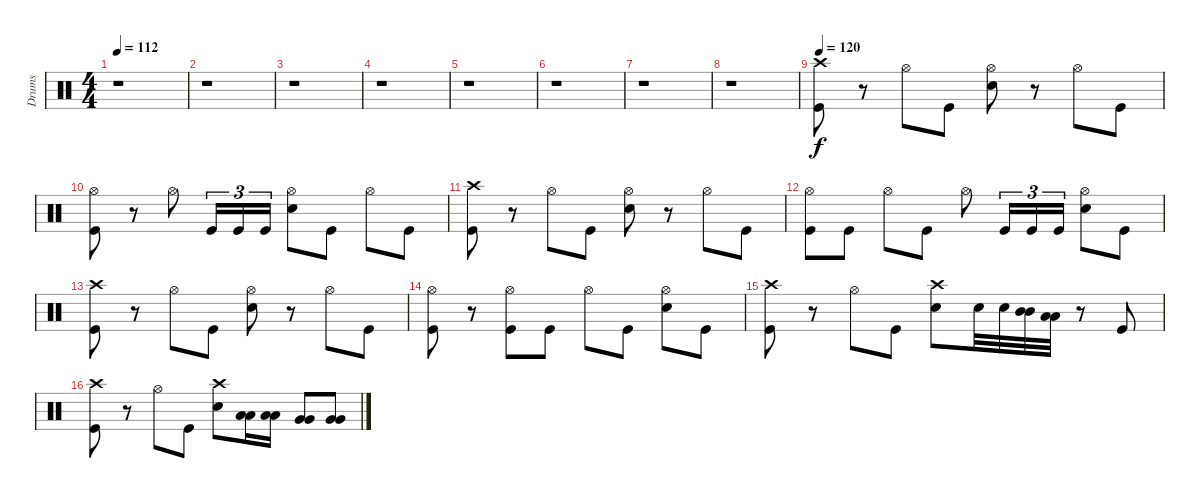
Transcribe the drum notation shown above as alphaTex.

\track ("Drums" "Drums") {instrument percussion}
\staff {score}
\articulation defaults
\ts (4 4)
\tempo 112
\clef neutral
\ks c
r.1{dy f} |
r.1 |
r.1 |
r.1 |
r.1 |
r.1 |
r.1 |
r.1 |
\tempo 120
("Crash high (hit)" "Kick (hit)").8 r.8 "Hi-Hat (open)".8 "Kick (hit)".8 ("Hi-Hat (open)" "Electric Snare (hit)").8 r.8 "Hi-Hat (open)".8 "Kick (hit)".8 |
("Hi-Hat (open)" "Kick (hit)").8 r.8 "Hi-Hat (open)".8 "Kick (hit)".16{tu (3 2)} "Kick (hit)".16{tu (3 2)} "Kick (hit)".16{tu (3 2)} ("Hi-Hat (open)" "Electric Snare (hit)").8 "Kick (hit)".8 "Hi-Hat (open)".8 "Kick (hit)".8 |
("Crash high (hit)" "Kick (hit)").8 r.8 "Hi-Hat (open)".8 "Kick (hit)".8 ("Hi-Hat (open)" "Electric Snare (hit)").8 r.8 "Hi-Hat (open)".8 "Kick (hit)".8 |
("Hi-Hat (open)" "Kick (hit)").8 "Kick (hit)".8 "Hi-Hat (open)".8 "Kick (hit)".8 "Hi-Hat (open)".8 "Kick (hit)".16{tu (3 2)} "Kick (hit)".16{tu (3 2)} "Kick (hit)".16{tu (3 2)} ("Hi-Hat (open)" "Electric Snare (hit)").8 "Kick (hit)".8 |
("Crash high (hit)" "Kick (hit)").8 r.8 "Hi-Hat (open)".8 "Kick (hit)".8 ("Hi-Hat (open)" "Electric Snare (hit)").8 r.8 "Hi-Hat (open)".8 "Kick (hit)".8 |
("Hi-Hat (open)" "Kick (hit)").8 r.8 ("Hi-Hat (open)" "Kick (hit)").8 "Kick (hit)".8 "Hi-Hat (open)".8 "Kick (hit)".8 ("Hi-Hat (open)" "Electric Snare (hit)").8 "Kick (hit)".8 |
("Crash high (hit)" "Kick (hit)").8 r.8 "Hi-Hat (open)".8 "Kick (hit)".8 ("Crash high (hit)" "Electric Snare (hit)").8 "Electric Snare (hit)".32 "Electric Snare (hit)".32 ("Mid Tom (hit)" "Mid Tom (hit)").32 ("Low Tom (hit)" "Low Tom (hit)").32 r.8 "Kick (hit)".8 |
("Crash high (hit)" "Kick (hit)").8 r.8 "Hi-Hat (open)".8 "Kick (hit)".8 ("Crash high (hit)" "Electric Snare (hit)").8 ("Low Tom (hit)" "Low Tom (hit)").16 ("Low Tom (hit)" "Low Tom (hit)").16 ("Very Low Tom (hit)" "Very Low Tom (hit)").8 ("Very Low Tom (hit)" "Very Low Tom (hit)").8
